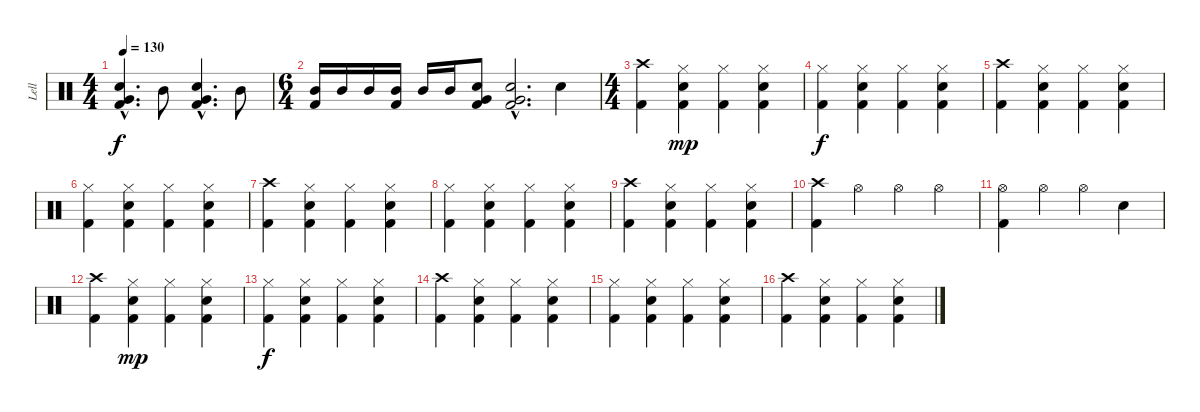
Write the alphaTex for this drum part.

\track ("Lell" "Lell") {instrument percussion}
\staff {score}
\articulation defaults
\ts (4 4)
\tempo 130
\clef neutral
\ks c
("Very Low Tom (hit)"{hac} "Snare (hit) 2"{hac} "Kick (hit) 2"{hac}).4{d dy f} "Mid Tom (hit)".8 ("Very Low Tom (hit)"{hac} "Snare (hit) 2"{hac} "Kick (hit) 2"{hac}).4{d} "Mid Tom (hit)".8 |
\ts (6 4)
("Mid Tom (hit)" "Kick (hit) 2").16 "Mid Tom (hit)".16 "Mid Tom (hit)".16 ("Mid Tom (hit)" "Kick (hit) 2").16 "Mid Tom (hit)".16 "Mid Tom (hit)".16 ("Very Low Tom (hit)" "Snare (hit) 2" "Kick (hit) 2").8 ("Very Low Tom (hit)"{hac} "Snare (hit) 2"{hac} "Kick (hit) 2"{hac}).2{d} "Snare (hit) 2".4 |
\ts (4 4)
("Crash high (hit)" "Kick (hit) 2").4 ("Hi-Hat (closed)" "Snare (hit) 2" "Kick (hit) 2").4{dy mp} ("Hi-Hat (closed)" "Kick (hit) 2").4 ("Hi-Hat (closed)" "Snare (hit) 2" "Kick (hit) 2").4 |
("Hi-Hat (closed)" "Kick (hit) 2").4{dy f} ("Hi-Hat (closed)" "Snare (hit) 2" "Kick (hit) 2").4 ("Hi-Hat (closed)" "Kick (hit) 2").4 ("Hi-Hat (closed)" "Snare (hit) 2" "Kick (hit) 2").4 |
("Crash high (hit)" "Kick (hit) 2").4 ("Hi-Hat (closed)" "Snare (hit) 2" "Kick (hit) 2").4 ("Hi-Hat (closed)" "Kick (hit) 2").4 ("Hi-Hat (closed)" "Snare (hit) 2" "Kick (hit) 2").4 |
("Hi-Hat (closed)" "Kick (hit) 2").4 ("Hi-Hat (closed)" "Snare (hit) 2" "Kick (hit) 2").4 ("Hi-Hat (closed)" "Kick (hit) 2").4 ("Hi-Hat (closed)" "Snare (hit) 2" "Kick (hit) 2").4 |
("Crash high (hit)" "Kick (hit) 2").4 ("Hi-Hat (closed)" "Snare (hit) 2" "Kick (hit) 2").4 ("Hi-Hat (closed)" "Kick (hit) 2").4 ("Hi-Hat (closed)" "Snare (hit) 2" "Kick (hit) 2").4 |
("Hi-Hat (closed)" "Kick (hit) 2").4 ("Hi-Hat (closed)" "Snare (hit) 2" "Kick (hit) 2").4 ("Hi-Hat (closed)" "Kick (hit) 2").4 ("Hi-Hat (closed)" "Snare (hit) 2" "Kick (hit) 2").4 |
("Crash high (hit)" "Kick (hit) 2").4 ("Hi-Hat (closed)" "Snare (hit) 2" "Kick (hit) 2").4 ("Hi-Hat (closed)" "Kick (hit) 2").4 ("Hi-Hat (closed)" "Snare (hit) 2" "Kick (hit) 2").4 |
("Crash high (hit)" "Kick (hit) 2").4 "Hi-Hat (open)".4 "Hi-Hat (open)".4 "Hi-Hat (open)".4 |
("Hi-Hat (open)" "Kick (hit) 2").4 "Hi-Hat (open)".4 "Hi-Hat (open)".4 "Snare (hit) 2".4 |
("Crash high (hit)" "Kick (hit) 2").4 ("Hi-Hat (closed)" "Snare (hit) 2" "Kick (hit) 2").4{dy mp} ("Hi-Hat (closed)" "Kick (hit) 2").4 ("Hi-Hat (closed)" "Snare (hit) 2" "Kick (hit) 2").4 |
("Hi-Hat (closed)" "Kick (hit) 2").4{dy f} ("Hi-Hat (closed)" "Snare (hit) 2" "Kick (hit) 2").4 ("Hi-Hat (closed)" "Kick (hit) 2").4 ("Hi-Hat (closed)" "Snare (hit) 2" "Kick (hit) 2").4 |
("Crash high (hit)" "Kick (hit) 2").4 ("Hi-Hat (closed)" "Snare (hit) 2" "Kick (hit) 2").4 ("Hi-Hat (closed)" "Kick (hit) 2").4 ("Hi-Hat (closed)" "Snare (hit) 2" "Kick (hit) 2").4 |
("Hi-Hat (closed)" "Kick (hit) 2").4 ("Hi-Hat (closed)" "Snare (hit) 2" "Kick (hit) 2").4 ("Hi-Hat (closed)" "Kick (hit) 2").4 ("Hi-Hat (closed)" "Snare (hit) 2" "Kick (hit) 2").4 |
("Crash high (hit)" "Kick (hit) 2").4 ("Hi-Hat (closed)" "Snare (hit) 2" "Kick (hit) 2").4 ("Hi-Hat (closed)" "Kick (hit) 2").4 ("Hi-Hat (closed)" "Snare (hit) 2" "Kick (hit) 2").4
